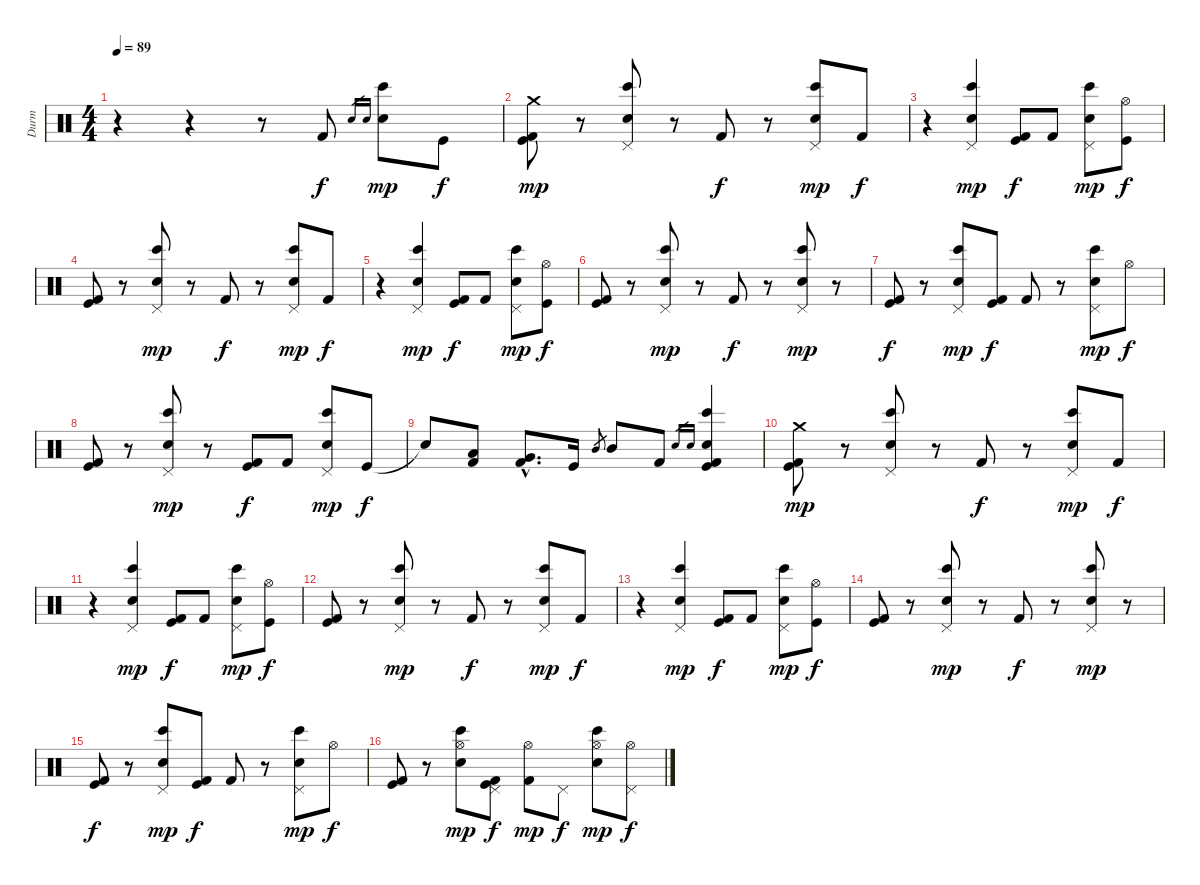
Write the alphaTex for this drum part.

\track ("Durm" "Durm") {instrument percussion}
\staff {score}
\articulation defaults
\ts (4 4)
\tempo 89
\clef neutral
\ks c
r.4{dy f} r.4 r.8 "Kick (hit) 2".8 "Snare (hit)".16{gr} "Electric Snare (hit)".16{gr} ("Bongo High (hit)" "Electric Snare (hit)").8{dy mp} "Kick (hit)".8{dy f} |
("Kick (hit)" "Kick (hit) 2" "Crash medium (hit)").8{dy mp} r.8 ("Pedal Hi-Hat (hit)" "Electric Snare (hit)" "Bongo High (hit)").8 r.8 "Kick (hit) 2".8{dy f} r.8 ("Pedal Hi-Hat (hit)" "Electric Snare (hit)" "Bongo High (hit)").8{dy mp} "Kick (hit) 2".8{dy f} |
r.4 ("Pedal Hi-Hat (hit)" "Electric Snare (hit)" "Bongo High (hit)").4{dy mp} ("Kick (hit) 2" "Kick (hit)").8{dy f} "Kick (hit) 2".8 ("Pedal Hi-Hat (hit)" "Electric Snare (hit)" "Bongo High (hit)").8{dy mp} ("Hi-Hat (open)" "Kick (hit)").8{dy f} |
("Kick (hit)" "Kick (hit) 2").8 r.8 ("Pedal Hi-Hat (hit)" "Electric Snare (hit)" "Bongo High (hit)").8{dy mp} r.8 "Kick (hit) 2".8{dy f} r.8 ("Pedal Hi-Hat (hit)" "Electric Snare (hit)" "Bongo High (hit)").8{dy mp} "Kick (hit) 2".8{dy f} |
r.4 ("Pedal Hi-Hat (hit)" "Electric Snare (hit)" "Bongo High (hit)").4{dy mp} ("Kick (hit) 2" "Kick (hit)").8{dy f} "Kick (hit) 2".8 ("Pedal Hi-Hat (hit)" "Electric Snare (hit)" "Bongo High (hit)").8{dy mp} ("Hi-Hat (open)" "Kick (hit)").8{dy f} |
("Kick (hit)" "Kick (hit) 2").8 r.8 ("Pedal Hi-Hat (hit)" "Electric Snare (hit)" "Bongo High (hit)").8{dy mp} r.8 "Kick (hit) 2".8{dy f} r.8 ("Pedal Hi-Hat (hit)" "Electric Snare (hit)" "Bongo High (hit)").8{dy mp} r.8 |
("Kick (hit)" "Kick (hit) 2").8{dy f} r.8 ("Pedal Hi-Hat (hit)" "Electric Snare (hit)" "Bongo High (hit)").8{dy mp} ("Kick (hit) 2" "Kick (hit)").8{dy f} "Kick (hit) 2".8 r.8 ("Pedal Hi-Hat (hit)" "Electric Snare (hit)" "Bongo High (hit)").8{dy mp} "Hi-Hat (open)".8{dy f} |
("Kick (hit)" "Kick (hit) 2").8 r.8 ("Pedal Hi-Hat (hit)" "Electric Snare (hit)" "Bongo High (hit)").8{dy mp} r.8 ("Kick (hit)" "Kick (hit) 2").8{dy f} "Kick (hit) 2".8 ("Pedal Hi-Hat (hit)" "Electric Snare (hit)" "Bongo High (hit)").8{dy mp} "Kick (hit)".8{dy f} |
"Snare (hit)"{t}.8 ("Low Tom (hit)" "Kick (hit) 2").8 ("Very Low Tom (hit)"{hac} "Kick (hit) 2"{hac}).8{d} "Kick (hit)".16 "Mid Tom (hit)"{sl}.8{gr} "Mid Tom (hit)".8 "Kick (hit) 2".8 "Snare (hit)".16{gr} "Electric Snare (hit)".16{gr} ("Bongo High (hit)" "Electric Snare (hit)" "Kick (hit) 2" "Kick (hit)").4 |
("Kick (hit)" "Kick (hit) 2" "Crash medium (hit)").8{dy mp} r.8 ("Pedal Hi-Hat (hit)" "Electric Snare (hit)" "Bongo High (hit)").8 r.8 "Kick (hit) 2".8{dy f} r.8 ("Pedal Hi-Hat (hit)" "Electric Snare (hit)" "Bongo High (hit)").8{dy mp} "Kick (hit) 2".8{dy f} |
r.4 ("Pedal Hi-Hat (hit)" "Electric Snare (hit)" "Bongo High (hit)").4{dy mp} ("Kick (hit) 2" "Kick (hit)").8{dy f} "Kick (hit) 2".8 ("Pedal Hi-Hat (hit)" "Electric Snare (hit)" "Bongo High (hit)").8{dy mp} ("Hi-Hat (open)" "Kick (hit)").8{dy f} |
("Kick (hit)" "Kick (hit) 2").8 r.8 ("Pedal Hi-Hat (hit)" "Electric Snare (hit)" "Bongo High (hit)").8{dy mp} r.8 "Kick (hit) 2".8{dy f} r.8 ("Pedal Hi-Hat (hit)" "Electric Snare (hit)" "Bongo High (hit)").8{dy mp} "Kick (hit) 2".8{dy f} |
r.4 ("Pedal Hi-Hat (hit)" "Electric Snare (hit)" "Bongo High (hit)").4{dy mp} ("Kick (hit) 2" "Kick (hit)").8{dy f} "Kick (hit) 2".8 ("Pedal Hi-Hat (hit)" "Electric Snare (hit)" "Bongo High (hit)").8{dy mp} ("Hi-Hat (open)" "Kick (hit)").8{dy f} |
("Kick (hit)" "Kick (hit) 2").8 r.8 ("Pedal Hi-Hat (hit)" "Electric Snare (hit)" "Bongo High (hit)").8{dy mp} r.8 "Kick (hit) 2".8{dy f} r.8 ("Pedal Hi-Hat (hit)" "Electric Snare (hit)" "Bongo High (hit)").8{dy mp} r.8 |
("Kick (hit)" "Kick (hit) 2").8{dy f} r.8 ("Pedal Hi-Hat (hit)" "Electric Snare (hit)" "Bongo High (hit)").8{dy mp} ("Kick (hit) 2" "Kick (hit)").8{dy f} "Kick (hit) 2".8 r.8 ("Pedal Hi-Hat (hit)" "Electric Snare (hit)" "Bongo High (hit)").8{dy mp} "Hi-Hat (open)".8{dy f} |
("Kick (hit)" "Kick (hit) 2").8 r.8 ("Hi-Hat (open)" "Electric Snare (hit)" "Bongo High (hit)").8{dy mp} ("Pedal Hi-Hat (hit)" "Kick (hit) 2" "Kick (hit)").8{dy f} ("Hi-Hat (open)" "Kick (hit) 2").8{dy mp} "Pedal Hi-Hat (hit)".8{dy f} ("Hi-Hat (open)" "Electric Snare (hit)" "Bongo High (hit)").8{dy mp} ("Pedal Hi-Hat (hit)" "Hi-Hat (open)").8{dy f}
